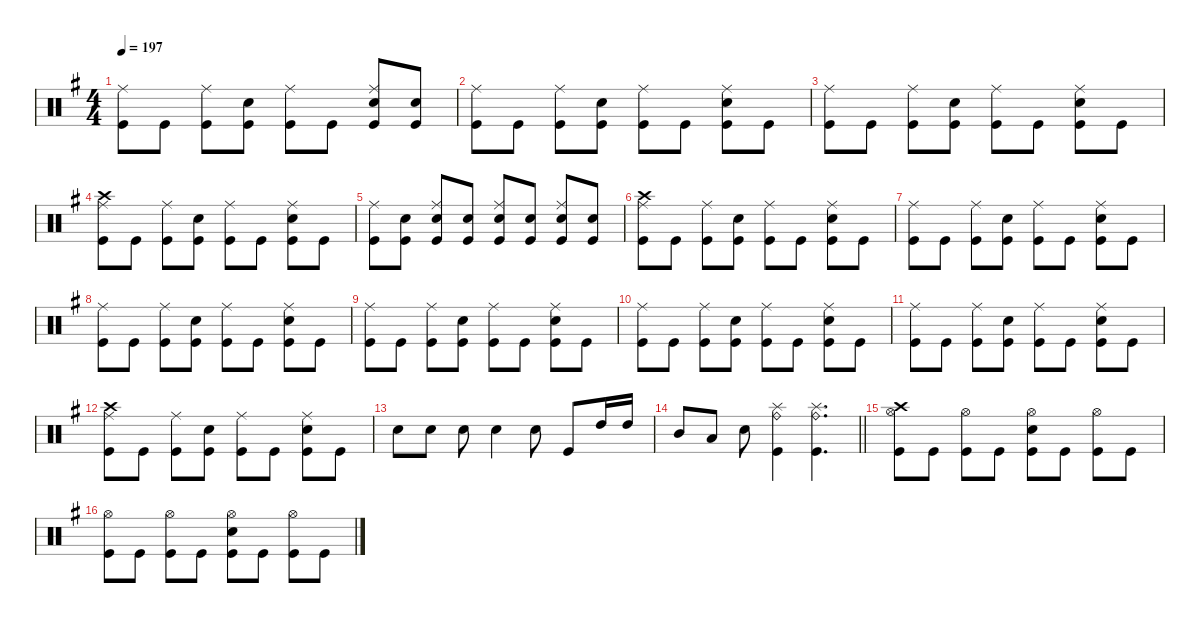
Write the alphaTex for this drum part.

\defaultSystemsLayout 4
\hideDynamics
\bracketExtendMode nobrackets
\singleTrackTrackNamePolicy hidden
\multiTrackTrackNamePolicy hidden
\firstSystemTrackNameMode fullname
\firstSystemTrackNameOrientation horizontal
\otherSystemsTrackNameOrientation horizontal
\track ("Drums" "drm.") {defaultSystemsLayout 4 instrument percussion}
\staff {score}
\articulation defaults
\ts (4 4)
\tempo 197
\clef neutral
\ks eminor
("Ride (middle)"{acc forcenatural} "Kick (hit)"{acc forcenatural}).8{dy f beam Down} "Kick (hit)"{acc forcenatural}.8{beam Down} ("Ride (middle)"{acc forcenatural} "Kick (hit)"{acc forcenatural}).8{beam Down} ("Snare (hit) 2"{acc forcenatural} "Kick (hit)"{acc forcenatural}).8{beam Down} ("Ride (middle)"{acc forcenatural} "Kick (hit)"{acc forcenatural}).8{beam Down} "Kick (hit)"{acc forcenatural}.8{beam Down} ("Ride (middle)"{acc forcenatural} "Snare (hit) 2"{acc forcenatural} "Kick (hit)"{acc forcenatural}).8{beam Up} ("Snare (hit) 2"{acc forcenatural} "Kick (hit)"{acc forcenatural}).8{beam Up} |
("Ride (middle)"{acc forcenatural} "Kick (hit)"{acc forcenatural}).8{beam Down} "Kick (hit)"{acc forcenatural}.8{beam Down} ("Ride (middle)"{acc forcenatural} "Kick (hit)"{acc forcenatural}).8{beam Down} ("Snare (hit) 2"{acc forcenatural} "Kick (hit)"{acc forcenatural}).8{beam Down} ("Ride (middle)"{acc forcenatural} "Kick (hit)"{acc forcenatural}).8{beam Down} "Kick (hit)"{acc forcenatural}.8{beam Down} ("Ride (middle)"{acc forcenatural} "Snare (hit) 2"{acc forcenatural} "Kick (hit)"{acc forcenatural}).8{beam Down} "Kick (hit)"{acc forcenatural}.8{beam Down} |
("Ride (middle)"{acc forcenatural} "Kick (hit)"{acc forcenatural}).8{beam Down} "Kick (hit)"{acc forcenatural}.8{beam Down} ("Ride (middle)"{acc forcenatural} "Kick (hit)"{acc forcenatural}).8{beam Down} ("Snare (hit) 2"{acc forcenatural} "Kick (hit)"{acc forcenatural}).8{beam Down} ("Ride (middle)"{acc forcenatural} "Kick (hit)"{acc forcenatural}).8{beam Down} "Kick (hit)"{acc forcenatural}.8{beam Down} ("Ride (middle)"{acc forcenatural} "Snare (hit) 2"{acc forcenatural} "Kick (hit)"{acc forcenatural}).8{beam Down} "Kick (hit)"{acc forcenatural}.8{beam Down} |
("Crash high (hit)"{acc forcenatural} "Ride (middle)"{acc forcenatural} "Kick (hit)"{acc forcenatural}).8{beam Down} "Kick (hit)"{acc forcenatural}.8{beam Down} ("Ride (middle)"{acc forcenatural} "Kick (hit)"{acc forcenatural}).8{beam Down} ("Snare (hit) 2"{acc forcenatural} "Kick (hit)"{acc forcenatural}).8{beam Down} ("Ride (middle)"{acc forcenatural} "Kick (hit)"{acc forcenatural}).8{beam Down} "Kick (hit)"{acc forcenatural}.8{beam Down} ("Ride (middle)"{acc forcenatural} "Snare (hit) 2"{acc forcenatural} "Kick (hit)"{acc forcenatural}).8{beam Down} "Kick (hit)"{acc forcenatural}.8{beam Down} |
("Ride (middle)"{acc forcenatural} "Kick (hit)"{acc forcenatural}).8{beam Down} ("Snare (hit) 2"{acc forcenatural} "Kick (hit)"{acc forcenatural}).8{beam Down} ("Ride (middle)"{acc forcenatural} "Snare (hit) 2"{acc forcenatural} "Kick (hit)"{acc forcenatural}).8{beam Up} ("Snare (hit) 2"{acc forcenatural} "Kick (hit)"{acc forcenatural}).8{beam Up} ("Ride (middle)"{acc forcenatural} "Snare (hit) 2"{acc forcenatural} "Kick (hit)"{acc forcenatural}).8{beam Up} ("Snare (hit) 2"{acc forcenatural} "Kick (hit)"{acc forcenatural}).8{beam Up} ("Ride (middle)"{acc forcenatural} "Snare (hit) 2"{acc forcenatural} "Kick (hit)"{acc forcenatural}).8{beam Up} ("Snare (hit) 2"{acc forcenatural} "Kick (hit)"{acc forcenatural}).8{beam Up} |
("Crash high (hit)"{acc forcenatural} "Ride (middle)"{acc forcenatural} "Kick (hit)"{acc forcenatural}).8{beam Down} "Kick (hit)"{acc forcenatural}.8{beam Down} ("Ride (middle)"{acc forcenatural} "Kick (hit)"{acc forcenatural}).8{beam Down} ("Snare (hit) 2"{acc forcenatural} "Kick (hit)"{acc forcenatural}).8{beam Down} ("Ride (middle)"{acc forcenatural} "Kick (hit)"{acc forcenatural}).8{beam Down} "Kick (hit)"{acc forcenatural}.8{beam Down} ("Ride (middle)"{acc forcenatural} "Snare (hit) 2"{acc forcenatural} "Kick (hit)"{acc forcenatural}).8{beam Down} "Kick (hit)"{acc forcenatural}.8{beam Down} |
("Ride (middle)"{acc forcenatural} "Kick (hit)"{acc forcenatural}).8{beam Down} "Kick (hit)"{acc forcenatural}.8{beam Down} ("Ride (middle)"{acc forcenatural} "Kick (hit)"{acc forcenatural}).8{beam Down} ("Snare (hit) 2"{acc forcenatural} "Kick (hit)"{acc forcenatural}).8{beam Down} ("Ride (middle)"{acc forcenatural} "Kick (hit)"{acc forcenatural}).8{beam Down} "Kick (hit)"{acc forcenatural}.8{beam Down} ("Ride (middle)"{acc forcenatural} "Snare (hit) 2"{acc forcenatural} "Kick (hit)"{acc forcenatural}).8{beam Down} "Kick (hit)"{acc forcenatural}.8{beam Down} |
("Ride (middle)"{acc forcenatural} "Kick (hit)"{acc forcenatural}).8{beam Down} "Kick (hit)"{acc forcenatural}.8{beam Down} ("Ride (middle)"{acc forcenatural} "Kick (hit)"{acc forcenatural}).8{beam Down} ("Snare (hit) 2"{acc forcenatural} "Kick (hit)"{acc forcenatural}).8{beam Down} ("Ride (middle)"{acc forcenatural} "Kick (hit)"{acc forcenatural}).8{beam Down} "Kick (hit)"{acc forcenatural}.8{beam Down} ("Ride (middle)"{acc forcenatural} "Snare (hit) 2"{acc forcenatural} "Kick (hit)"{acc forcenatural}).8{beam Down} "Kick (hit)"{acc forcenatural}.8{beam Down} |
("Ride (middle)"{acc forcenatural} "Kick (hit)"{acc forcenatural}).8{beam Down} "Kick (hit)"{acc forcenatural}.8{beam Down} ("Ride (middle)"{acc forcenatural} "Kick (hit)"{acc forcenatural}).8{beam Down} ("Snare (hit) 2"{acc forcenatural} "Kick (hit)"{acc forcenatural}).8{beam Down} ("Ride (middle)"{acc forcenatural} "Kick (hit)"{acc forcenatural}).8{beam Down} "Kick (hit)"{acc forcenatural}.8{beam Down} ("Ride (middle)"{acc forcenatural} "Snare (hit) 2"{acc forcenatural} "Kick (hit)"{acc forcenatural}).8{beam Down} "Kick (hit)"{acc forcenatural}.8{beam Down} |
("Ride (middle)"{acc forcenatural} "Kick (hit)"{acc forcenatural}).8{beam Down} "Kick (hit)"{acc forcenatural}.8{beam Down} ("Ride (middle)"{acc forcenatural} "Kick (hit)"{acc forcenatural}).8{beam Down} ("Snare (hit) 2"{acc forcenatural} "Kick (hit)"{acc forcenatural}).8{beam Down} ("Ride (middle)"{acc forcenatural} "Kick (hit)"{acc forcenatural}).8{beam Down} "Kick (hit)"{acc forcenatural}.8{beam Down} ("Ride (middle)"{acc forcenatural} "Snare (hit) 2"{acc forcenatural} "Kick (hit)"{acc forcenatural}).8{beam Down} "Kick (hit)"{acc forcenatural}.8{beam Down} |
("Ride (middle)"{acc forcenatural} "Kick (hit)"{acc forcenatural}).8{beam Down} "Kick (hit)"{acc forcenatural}.8{beam Down} ("Ride (middle)"{acc forcenatural} "Kick (hit)"{acc forcenatural}).8{beam Down} ("Snare (hit) 2"{acc forcenatural} "Kick (hit)"{acc forcenatural}).8{beam Down} ("Ride (middle)"{acc forcenatural} "Kick (hit)"{acc forcenatural}).8{beam Down} "Kick (hit)"{acc forcenatural}.8{beam Down} ("Ride (middle)"{acc forcenatural} "Snare (hit) 2"{acc forcenatural} "Kick (hit)"{acc forcenatural}).8{beam Down} "Kick (hit)"{acc forcenatural}.8{beam Down} |
("Crash high (hit)"{acc forcenatural} "Ride (middle)"{acc forcenatural} "Kick (hit)"{acc forcenatural}).8{beam Down} "Kick (hit)"{acc forcenatural}.8{beam Down} ("Ride (middle)"{acc forcenatural} "Kick (hit)"{acc forcenatural}).8{beam Down} ("Snare (hit) 2"{acc forcenatural} "Kick (hit)"{acc forcenatural}).8{beam Down} ("Ride (middle)"{acc forcenatural} "Kick (hit)"{acc forcenatural}).8{beam Down} "Kick (hit)"{acc forcenatural}.8{beam Down} ("Ride (middle)"{acc forcenatural} "Snare (hit) 2"{acc forcenatural} "Kick (hit)"{acc forcenatural}).8{beam Down} "Kick (hit)"{acc forcenatural}.8{beam Down} |
"Snare (hit) 2"{acc forcenatural}.8{beam Down} "Snare (hit) 2"{acc forcenatural}.8{beam Down} "Snare (hit) 2"{acc forcenatural}.8{beam Down} "Snare (hit) 2"{acc forcenatural}.4{beam Down} "Snare (hit) 2"{acc forcenatural}.8{beam Down} "Kick (hit)"{acc forcenatural}.8{beam Up} "High Tom (hit)"{acc forcenatural}.16{beam Up} "High Tom (hit)"{acc forcenatural}.16{beam Up} |
\barLineRight lightlight "Mid Tom (hit)"{acc forcenatural}.8{beam Up} "Low Tom (hit)"{acc forcenatural}.8{beam Up} "Snare (hit) 2"{acc forcenatural}.8{beam Down}
("Ride (bell)"{acc forcenatural} "Splash (hit)"{acc forcenatural} "Kick (hit)"{acc forcenatural}).4{beam Down} ("Ride (bell)"{acc forcenatural} "Splash (hit)"{acc forcenatural} "Kick (hit)"{acc forcenatural}).4{d beam Down} |
("Crash high (hit)"{acc forcenatural} "Hi-Hat (open)"{acc forcenatural} "Kick (hit)"{acc forcenatural}).8{beam Down} "Kick (hit)"{acc forcenatural}.8{beam Down} ("Hi-Hat (open)"{acc forcenatural} "Kick (hit)"{acc forcenatural}).8{beam Down} "Kick (hit)"{acc forcenatural}.8{beam Down} ("Hi-Hat (open)"{acc forcenatural} "Snare (hit) 2"{acc forcenatural} "Kick (hit)"{acc forcenatural}).8{beam Down} "Kick (hit)"{acc forcenatural}.8{beam Down} ("Hi-Hat (open)"{acc forcenatural} "Kick (hit)"{acc forcenatural}).8{beam Down} "Kick (hit)"{acc forcenatural}.8{beam Down} |
("Hi-Hat (open)"{acc forcenatural} "Kick (hit)"{acc forcenatural}).8{beam Down} "Kick (hit)"{acc forcenatural}.8{beam Down} ("Hi-Hat (open)"{acc forcenatural} "Kick (hit)"{acc forcenatural}).8{beam Down} "Kick (hit)"{acc forcenatural}.8{beam Down} ("Hi-Hat (open)"{acc forcenatural} "Snare (hit) 2"{acc forcenatural} "Kick (hit)"{acc forcenatural}).8{beam Down} "Kick (hit)"{acc forcenatural}.8{beam Down} ("Hi-Hat (open)"{acc forcenatural} "Kick (hit)"{acc forcenatural}).8{beam Down} "Kick (hit)"{acc forcenatural}.8{beam Down}
